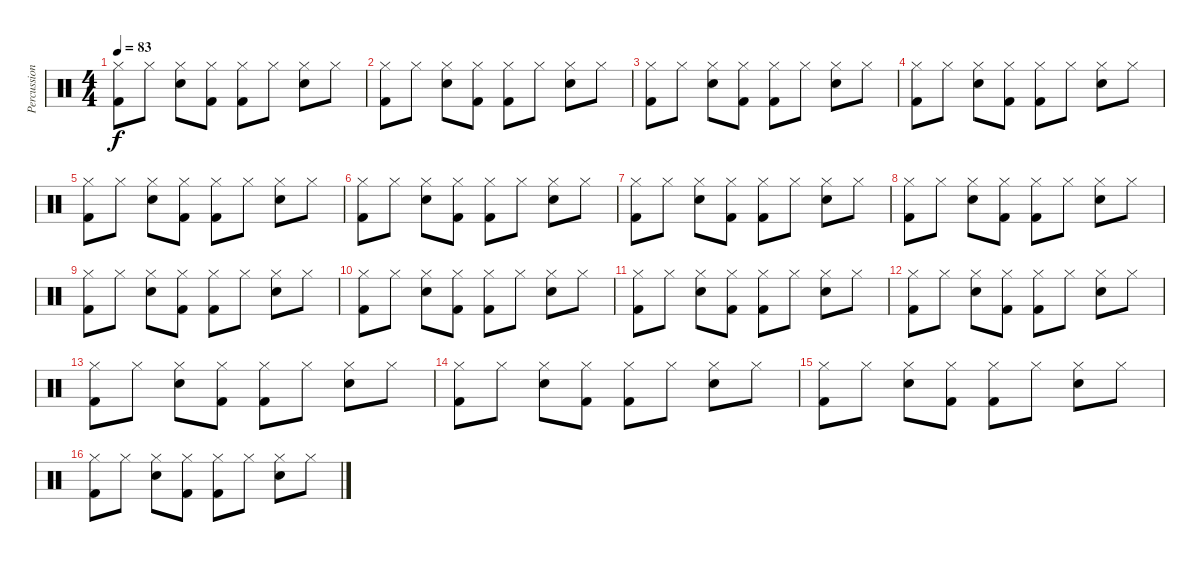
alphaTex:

\track ("Percussion" "Percussion") {instrument percussion}
\staff {score}
\articulation defaults
\ts (4 4)
\tempo 83
\clef neutral
\ks c
("Kick (hit) 2" "Hi-Hat (closed)").8{dy f} "Hi-Hat (closed)".8 ("Hi-Hat (closed)" "Snare (hit) 2").8 ("Hi-Hat (closed)" "Kick (hit) 2").8 ("Kick (hit) 2" "Hi-Hat (closed)").8 "Hi-Hat (closed)".8 ("Hi-Hat (closed)" "Snare (hit) 2").8 "Hi-Hat (closed)".8 |
("Kick (hit) 2" "Hi-Hat (closed)").8 "Hi-Hat (closed)".8 ("Hi-Hat (closed)" "Snare (hit) 2").8 ("Hi-Hat (closed)" "Kick (hit) 2").8 ("Kick (hit) 2" "Hi-Hat (closed)").8 "Hi-Hat (closed)".8 ("Hi-Hat (closed)" "Snare (hit) 2").8 "Hi-Hat (closed)".8 |
("Kick (hit) 2" "Hi-Hat (closed)").8 "Hi-Hat (closed)".8 ("Hi-Hat (closed)" "Snare (hit) 2").8 ("Hi-Hat (closed)" "Kick (hit) 2").8 ("Kick (hit) 2" "Hi-Hat (closed)").8 "Hi-Hat (closed)".8 ("Hi-Hat (closed)" "Snare (hit) 2").8 "Hi-Hat (closed)".8 |
("Kick (hit) 2" "Hi-Hat (closed)").8 "Hi-Hat (closed)".8 ("Hi-Hat (closed)" "Snare (hit) 2").8 ("Hi-Hat (closed)" "Kick (hit) 2").8 ("Kick (hit) 2" "Hi-Hat (closed)").8 "Hi-Hat (closed)".8 ("Hi-Hat (closed)" "Snare (hit) 2").8 "Hi-Hat (closed)".8 |
("Kick (hit) 2" "Hi-Hat (closed)").8 "Hi-Hat (closed)".8 ("Hi-Hat (closed)" "Snare (hit) 2").8 ("Hi-Hat (closed)" "Kick (hit) 2").8 ("Kick (hit) 2" "Hi-Hat (closed)").8 "Hi-Hat (closed)".8 ("Hi-Hat (closed)" "Snare (hit) 2").8 "Hi-Hat (closed)".8 |
("Kick (hit) 2" "Hi-Hat (closed)").8 "Hi-Hat (closed)".8 ("Hi-Hat (closed)" "Snare (hit) 2").8 ("Hi-Hat (closed)" "Kick (hit) 2").8 ("Kick (hit) 2" "Hi-Hat (closed)").8 "Hi-Hat (closed)".8 ("Hi-Hat (closed)" "Snare (hit) 2").8 "Hi-Hat (closed)".8 |
("Hi-Hat (closed)" "Kick (hit) 2").8 "Hi-Hat (closed)".8 ("Snare (hit) 2" "Hi-Hat (closed)").8 ("Hi-Hat (closed)" "Kick (hit) 2").8 ("Hi-Hat (closed)" "Kick (hit) 2").8 "Hi-Hat (closed)".8 ("Snare (hit) 2" "Hi-Hat (closed)").8 "Hi-Hat (closed)".8 |
("Hi-Hat (closed)" "Kick (hit) 2").8 "Hi-Hat (closed)".8 ("Snare (hit) 2" "Hi-Hat (closed)").8 ("Hi-Hat (closed)" "Kick (hit) 2").8 ("Hi-Hat (closed)" "Kick (hit) 2").8 "Hi-Hat (closed)".8 ("Snare (hit) 2" "Hi-Hat (closed)").8 "Hi-Hat (closed)".8 |
("Hi-Hat (closed)" "Kick (hit) 2").8 "Hi-Hat (closed)".8 ("Snare (hit) 2" "Hi-Hat (closed)").8 ("Hi-Hat (closed)" "Kick (hit) 2").8 ("Hi-Hat (closed)" "Kick (hit) 2").8 "Hi-Hat (closed)".8 ("Snare (hit) 2" "Hi-Hat (closed)").8 "Hi-Hat (closed)".8 |
("Hi-Hat (closed)" "Kick (hit) 2").8 "Hi-Hat (closed)".8 ("Snare (hit) 2" "Hi-Hat (closed)").8 ("Hi-Hat (closed)" "Kick (hit) 2").8 ("Hi-Hat (closed)" "Kick (hit) 2").8 "Hi-Hat (closed)".8 ("Snare (hit) 2" "Hi-Hat (closed)").8 "Hi-Hat (closed)".8 |
("Hi-Hat (closed)" "Kick (hit) 2").8 "Hi-Hat (closed)".8 ("Snare (hit) 2" "Hi-Hat (closed)").8 ("Hi-Hat (closed)" "Kick (hit) 2").8 ("Hi-Hat (closed)" "Kick (hit) 2").8 "Hi-Hat (closed)".8 ("Snare (hit) 2" "Hi-Hat (closed)").8 "Hi-Hat (closed)".8 |
("Hi-Hat (closed)" "Kick (hit) 2").8 "Hi-Hat (closed)".8 ("Snare (hit) 2" "Hi-Hat (closed)").8 ("Hi-Hat (closed)" "Kick (hit) 2").8 ("Hi-Hat (closed)" "Kick (hit) 2").8 "Hi-Hat (closed)".8 ("Snare (hit) 2" "Hi-Hat (closed)").8 "Hi-Hat (closed)".8 |
("Hi-Hat (closed)" "Kick (hit) 2").8 "Hi-Hat (closed)".8 ("Snare (hit) 2" "Hi-Hat (closed)").8 ("Hi-Hat (closed)" "Kick (hit) 2").8 ("Hi-Hat (closed)" "Kick (hit) 2").8 "Hi-Hat (closed)".8 ("Snare (hit) 2" "Hi-Hat (closed)").8 "Hi-Hat (closed)".8 |
("Hi-Hat (closed)" "Kick (hit) 2").8 "Hi-Hat (closed)".8 ("Snare (hit) 2" "Hi-Hat (closed)").8 ("Hi-Hat (closed)" "Kick (hit) 2").8 ("Hi-Hat (closed)" "Kick (hit) 2").8 "Hi-Hat (closed)".8 ("Snare (hit) 2" "Hi-Hat (closed)").8 "Hi-Hat (closed)".8 |
("Hi-Hat (closed)" "Kick (hit) 2").8 "Hi-Hat (closed)".8 ("Snare (hit) 2" "Hi-Hat (closed)").8 ("Hi-Hat (closed)" "Kick (hit) 2").8 ("Hi-Hat (closed)" "Kick (hit) 2").8 "Hi-Hat (closed)".8 ("Snare (hit) 2" "Hi-Hat (closed)").8 "Hi-Hat (closed)".8 |
("Hi-Hat (closed)" "Kick (hit) 2").8 "Hi-Hat (closed)".8 ("Snare (hit) 2" "Hi-Hat (closed)").8 ("Hi-Hat (closed)" "Kick (hit) 2").8 ("Hi-Hat (closed)" "Kick (hit) 2").8 "Hi-Hat (closed)".8 ("Snare (hit) 2" "Hi-Hat (closed)").8 "Hi-Hat (closed)".8
